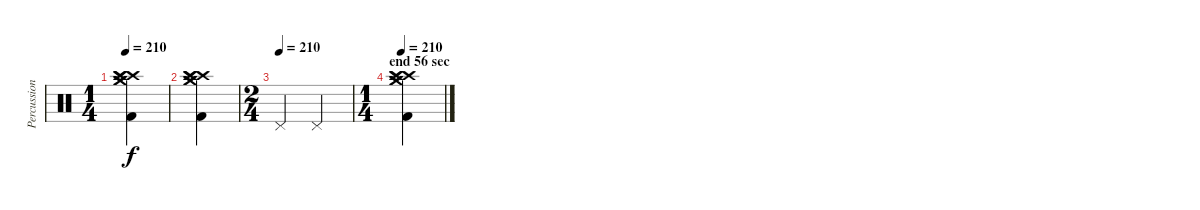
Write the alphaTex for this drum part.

\track ("Percussion" "Percussion") {instrument percussion}
\staff {score}
\articulation defaults
\ts (1 4)
\tempo 210
\clef neutral
\ks c
("Crash high (hit)" "Crash medium (hit)" "Crash medium (hit)" "Crash high (hit)" "Crash high (hit)" "Kick (hit) 2").4{dy f} |
("Crash high (hit)" "Crash medium (hit)" "Crash medium (hit)" "Crash high (hit)" "Crash high (hit)" "Kick (hit) 2").4 |
\ts (2 4)
\tempo (210)
"Pedal Hi-Hat (hit)".4 "Pedal Hi-Hat (hit)".4 |
\ts (1 4)
\section ("" "end 56 sec")
\tempo 210
("Crash high (hit)" "Crash medium (hit)" "Crash medium (hit)" "Crash high (hit)" "Crash high (hit)" "Kick (hit) 2").4
